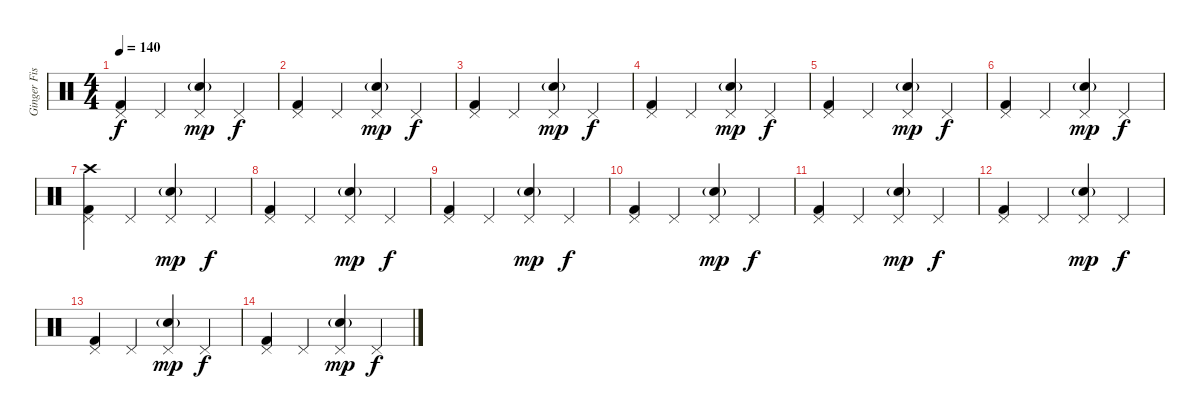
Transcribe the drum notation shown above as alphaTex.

\track ("Ginger Fish" "Ginger Fis") {instrument percussion}
\staff {score}
\articulation defaults
\ts (4 4)
\tempo 140
\clef neutral
\ks c
("Pedal Hi-Hat (hit)" "Kick (hit) 2").4{dy f} "Pedal Hi-Hat (hit)".4 ("Pedal Hi-Hat (hit)" "Electric Snare (hit)"{g}).4{dy mp} "Pedal Hi-Hat (hit)".4{dy f} |
("Pedal Hi-Hat (hit)" "Kick (hit) 2").4 "Pedal Hi-Hat (hit)".4 ("Pedal Hi-Hat (hit)" "Electric Snare (hit)"{g}).4{dy mp} "Pedal Hi-Hat (hit)".4{dy f} |
("Pedal Hi-Hat (hit)" "Kick (hit) 2").4 "Pedal Hi-Hat (hit)".4 ("Pedal Hi-Hat (hit)" "Electric Snare (hit)"{g}).4{dy mp} "Pedal Hi-Hat (hit)".4{dy f} |
("Pedal Hi-Hat (hit)" "Kick (hit) 2").4 "Pedal Hi-Hat (hit)".4 ("Pedal Hi-Hat (hit)" "Electric Snare (hit)"{g}).4{dy mp} "Pedal Hi-Hat (hit)".4{dy f} |
("Pedal Hi-Hat (hit)" "Kick (hit) 2").4 "Pedal Hi-Hat (hit)".4 ("Pedal Hi-Hat (hit)" "Electric Snare (hit)"{g}).4{dy mp} "Pedal Hi-Hat (hit)".4{dy f} |
("Pedal Hi-Hat (hit)" "Kick (hit) 2").4 "Pedal Hi-Hat (hit)".4 ("Pedal Hi-Hat (hit)" "Electric Snare (hit)"{g}).4{dy mp} "Pedal Hi-Hat (hit)".4{dy f} |
("Pedal Hi-Hat (hit)" "Crash high (hit)" "Kick (hit) 2").4 "Pedal Hi-Hat (hit)".4 ("Pedal Hi-Hat (hit)" "Electric Snare (hit)"{g}).4{dy mp} "Pedal Hi-Hat (hit)".4{dy f} |
("Pedal Hi-Hat (hit)" "Kick (hit) 2").4 "Pedal Hi-Hat (hit)".4 ("Pedal Hi-Hat (hit)" "Electric Snare (hit)"{g}).4{dy mp} "Pedal Hi-Hat (hit)".4{dy f} |
("Pedal Hi-Hat (hit)" "Kick (hit) 2").4 "Pedal Hi-Hat (hit)".4 ("Pedal Hi-Hat (hit)" "Electric Snare (hit)"{g}).4{dy mp} "Pedal Hi-Hat (hit)".4{dy f} |
("Pedal Hi-Hat (hit)" "Kick (hit) 2").4 "Pedal Hi-Hat (hit)".4 ("Pedal Hi-Hat (hit)" "Electric Snare (hit)"{g}).4{dy mp} "Pedal Hi-Hat (hit)".4{dy f} |
("Pedal Hi-Hat (hit)" "Kick (hit) 2").4 "Pedal Hi-Hat (hit)".4 ("Pedal Hi-Hat (hit)" "Electric Snare (hit)"{g}).4{dy mp} "Pedal Hi-Hat (hit)".4{dy f} |
("Pedal Hi-Hat (hit)" "Kick (hit) 2").4 "Pedal Hi-Hat (hit)".4 ("Pedal Hi-Hat (hit)" "Electric Snare (hit)"{g}).4{dy mp} "Pedal Hi-Hat (hit)".4{dy f} |
("Pedal Hi-Hat (hit)" "Kick (hit) 2").4 "Pedal Hi-Hat (hit)".4 ("Pedal Hi-Hat (hit)" "Electric Snare (hit)"{g}).4{dy mp} "Pedal Hi-Hat (hit)".4{dy f} |
("Pedal Hi-Hat (hit)" "Kick (hit) 2").4 "Pedal Hi-Hat (hit)".4 ("Pedal Hi-Hat (hit)" "Electric Snare (hit)"{g}).4{dy mp} "Pedal Hi-Hat (hit)".4{dy f}
